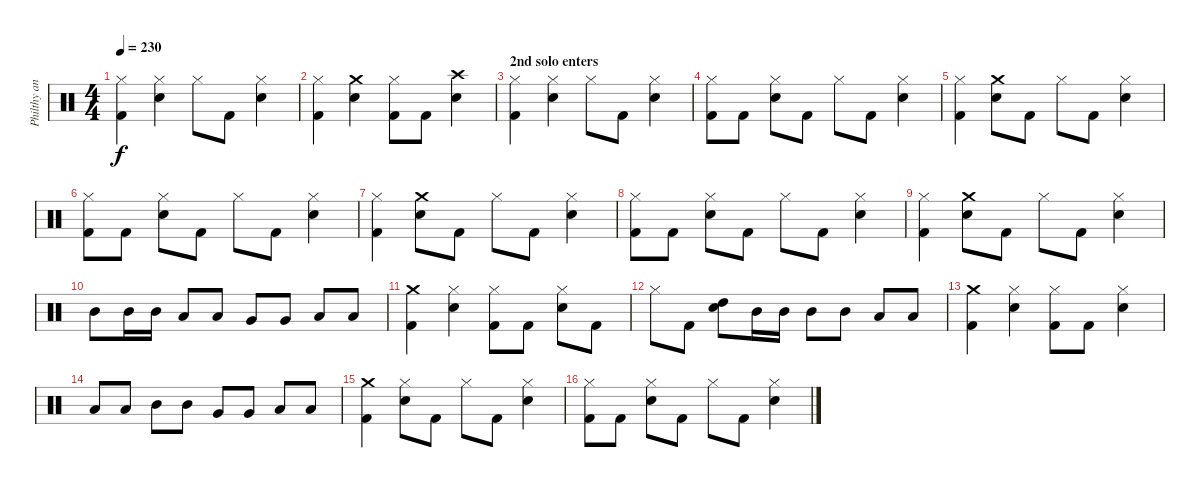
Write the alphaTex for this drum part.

\track ("Philthy animal Taylor" "Philthy an") {instrument percussion}
\staff {score}
\articulation defaults
\ts (4 4)
\tempo 230
\clef neutral
\ks c
("Hi-Hat (closed)" "Kick (hit) 2").4{dy f} ("Hi-Hat (closed)" "Snare (hit) 2").4 "Hi-Hat (closed)".8 "Kick (hit) 2".8 ("Hi-Hat (closed)" "Snare (hit) 2").4 |
("Hi-Hat (closed)" "Kick (hit) 2").4 ("Crash medium (hit)" "Snare (hit) 2").4 ("Hi-Hat (closed)" "Kick (hit) 2").8 "Kick (hit) 2".8 ("Crash high (hit)" "Snare (hit) 2").4 |
\section ("" "2nd solo enters")
("Hi-Hat (closed)" "Kick (hit) 2").4 ("Hi-Hat (closed)" "Snare (hit) 2").4 "Hi-Hat (closed)".8 "Kick (hit) 2".8 ("Hi-Hat (closed)" "Snare (hit) 2").4 |
("Hi-Hat (closed)" "Kick (hit) 2").8 "Kick (hit) 2".8 ("Hi-Hat (closed)" "Snare (hit) 2").8 "Kick (hit) 2".8 "Hi-Hat (closed)".8 "Kick (hit) 2".8 ("Hi-Hat (closed)" "Snare (hit) 2").4 |
("Hi-Hat (closed)" "Kick (hit) 2").4 ("Crash medium (hit)" "Snare (hit) 2").8 "Kick (hit) 2".8 "Hi-Hat (closed)".8 "Kick (hit) 2".8 ("Hi-Hat (closed)" "Snare (hit) 2").4 |
("Hi-Hat (closed)" "Kick (hit) 2").8 "Kick (hit) 2".8 ("Hi-Hat (closed)" "Snare (hit) 2").8 "Kick (hit) 2".8 "Hi-Hat (closed)".8 "Kick (hit) 2".8 ("Hi-Hat (closed)" "Snare (hit) 2").4 |
("Hi-Hat (closed)" "Kick (hit) 2").4 ("Crash medium (hit)" "Snare (hit) 2").8 "Kick (hit) 2".8 "Hi-Hat (closed)".8 "Kick (hit) 2".8 ("Hi-Hat (closed)" "Snare (hit) 2").4 |
("Hi-Hat (closed)" "Kick (hit) 2").8 "Kick (hit) 2".8 ("Hi-Hat (closed)" "Snare (hit) 2").8 "Kick (hit) 2".8 "Hi-Hat (closed)".8 "Kick (hit) 2".8 ("Hi-Hat (closed)" "Snare (hit) 2").4 |
("Hi-Hat (closed)" "Kick (hit) 2").4 ("Crash medium (hit)" "Snare (hit) 2").8 "Kick (hit) 2".8 "Hi-Hat (closed)".8 "Kick (hit) 2".8 ("Hi-Hat (closed)" "Snare (hit) 2").4 |
"Mid Tom (hit)".8 "Mid Tom (hit)".16 "Mid Tom (hit)".16 "Low Tom (hit)".8 "Low Tom (hit)".8 "Very Low Tom (hit)".8 "Very Low Tom (hit)".8 "Low Floor Tom (hit)".8 "Low Floor Tom (hit)".8 |
("Crash medium (hit)" "Kick (hit) 2").4 ("Hi-Hat (closed)" "Snare (hit) 2").4 ("Hi-Hat (closed)" "Kick (hit) 2").8 "Kick (hit) 2".8 ("Hi-Hat (closed)" "Snare (hit) 2").8 "Kick (hit) 2".8 |
"Hi-Hat (closed)".8 "Kick (hit) 2".8 ("High Tom (hit)" "Snare (hit) 2").8 "Mid Tom (hit)".16 "Mid Tom (hit)".16 "Mid Tom (hit)".8 "Mid Tom (hit)".8 "Low Tom (hit)".8 "Low Tom (hit)".8 |
("Crash medium (hit)" "Kick (hit) 2").4 ("Hi-Hat (closed)" "Snare (hit) 2").4 ("Hi-Hat (closed)" "Kick (hit) 2").8 "Kick (hit) 2".8 ("Hi-Hat (closed)" "Snare (hit) 2").4 |
"Low Tom (hit)".8 "Low Tom (hit)".8 "Mid Tom (hit)".8 "Mid Tom (hit)".8 "Very Low Tom (hit)".8 "Very Low Tom (hit)".8 "Low Floor Tom (hit)".8 "Low Floor Tom (hit)".8 |
("Crash medium (hit)" "Kick (hit) 2").4 ("Hi-Hat (closed)" "Snare (hit) 2").8 "Kick (hit) 2".8 "Hi-Hat (closed)".8 "Kick (hit) 2".8 ("Hi-Hat (closed)" "Snare (hit) 2").4 |
("Hi-Hat (closed)" "Kick (hit) 2").8 "Kick (hit) 2".8 ("Hi-Hat (closed)" "Snare (hit) 2").8 "Kick (hit) 2".8 "Hi-Hat (closed)".8 "Kick (hit) 2".8 ("Hi-Hat (closed)" "Snare (hit) 2").4
